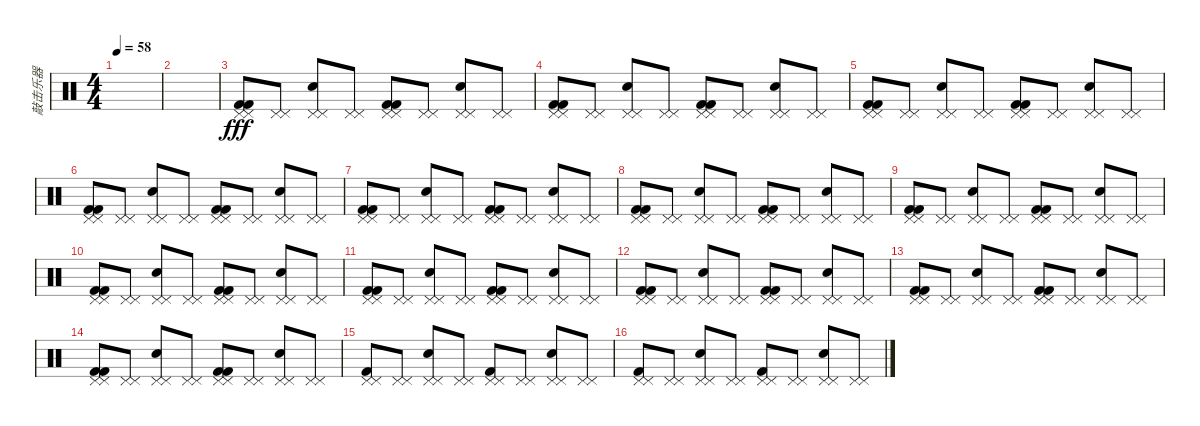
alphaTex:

\track ("敲击乐器" "敲击乐器") {instrument percussion}
\staff {score}
\articulation defaults
\ts (4 4)
\tempo 58
\clef neutral
\ks c
|
|
("Pedal Hi-Hat (hit)" "Pedal Hi-Hat (hit)" "Kick (hit) 2" "Kick (hit) 2").8{dy fff} ("Pedal Hi-Hat (hit)" "Pedal Hi-Hat (hit)").8 ("Pedal Hi-Hat (hit)" "Pedal Hi-Hat (hit)" "Snare (hit) 2").8 ("Pedal Hi-Hat (hit)" "Pedal Hi-Hat (hit)").8 ("Pedal Hi-Hat (hit)" "Pedal Hi-Hat (hit)" "Kick (hit) 2" "Kick (hit) 2").8 ("Pedal Hi-Hat (hit)" "Pedal Hi-Hat (hit)").8 ("Pedal Hi-Hat (hit)" "Pedal Hi-Hat (hit)" "Snare (hit) 2").8 ("Pedal Hi-Hat (hit)" "Pedal Hi-Hat (hit)").8 |
("Pedal Hi-Hat (hit)" "Pedal Hi-Hat (hit)" "Kick (hit) 2" "Kick (hit) 2").8 ("Pedal Hi-Hat (hit)" "Pedal Hi-Hat (hit)").8 ("Pedal Hi-Hat (hit)" "Pedal Hi-Hat (hit)" "Snare (hit) 2").8 ("Pedal Hi-Hat (hit)" "Pedal Hi-Hat (hit)").8 ("Pedal Hi-Hat (hit)" "Pedal Hi-Hat (hit)" "Kick (hit) 2" "Kick (hit) 2").8 ("Pedal Hi-Hat (hit)" "Pedal Hi-Hat (hit)").8 ("Pedal Hi-Hat (hit)" "Pedal Hi-Hat (hit)" "Snare (hit) 2").8 ("Pedal Hi-Hat (hit)" "Pedal Hi-Hat (hit)").8 |
("Pedal Hi-Hat (hit)" "Pedal Hi-Hat (hit)" "Kick (hit) 2" "Kick (hit) 2").8 ("Pedal Hi-Hat (hit)" "Pedal Hi-Hat (hit)").8 ("Pedal Hi-Hat (hit)" "Pedal Hi-Hat (hit)" "Snare (hit) 2").8 ("Pedal Hi-Hat (hit)" "Pedal Hi-Hat (hit)").8 ("Pedal Hi-Hat (hit)" "Pedal Hi-Hat (hit)" "Kick (hit) 2" "Kick (hit) 2").8 ("Pedal Hi-Hat (hit)" "Pedal Hi-Hat (hit)").8 ("Pedal Hi-Hat (hit)" "Pedal Hi-Hat (hit)" "Snare (hit) 2").8 ("Pedal Hi-Hat (hit)" "Pedal Hi-Hat (hit)").8 |
("Pedal Hi-Hat (hit)" "Pedal Hi-Hat (hit)" "Kick (hit) 2" "Kick (hit) 2").8 ("Pedal Hi-Hat (hit)" "Pedal Hi-Hat (hit)").8 ("Pedal Hi-Hat (hit)" "Pedal Hi-Hat (hit)" "Snare (hit) 2").8 ("Pedal Hi-Hat (hit)" "Pedal Hi-Hat (hit)").8 ("Pedal Hi-Hat (hit)" "Pedal Hi-Hat (hit)" "Kick (hit) 2" "Kick (hit) 2").8 ("Pedal Hi-Hat (hit)" "Pedal Hi-Hat (hit)").8 ("Pedal Hi-Hat (hit)" "Pedal Hi-Hat (hit)" "Snare (hit) 2").8 ("Pedal Hi-Hat (hit)" "Pedal Hi-Hat (hit)").8 |
("Pedal Hi-Hat (hit)" "Pedal Hi-Hat (hit)" "Kick (hit) 2" "Kick (hit) 2").8 ("Pedal Hi-Hat (hit)" "Pedal Hi-Hat (hit)").8 ("Pedal Hi-Hat (hit)" "Pedal Hi-Hat (hit)" "Snare (hit) 2").8 ("Pedal Hi-Hat (hit)" "Pedal Hi-Hat (hit)").8 ("Pedal Hi-Hat (hit)" "Pedal Hi-Hat (hit)" "Kick (hit) 2" "Kick (hit) 2").8 ("Pedal Hi-Hat (hit)" "Pedal Hi-Hat (hit)").8 ("Pedal Hi-Hat (hit)" "Pedal Hi-Hat (hit)" "Snare (hit) 2").8 ("Pedal Hi-Hat (hit)" "Pedal Hi-Hat (hit)").8 |
("Pedal Hi-Hat (hit)" "Pedal Hi-Hat (hit)" "Kick (hit) 2" "Kick (hit) 2").8 ("Pedal Hi-Hat (hit)" "Pedal Hi-Hat (hit)").8 ("Pedal Hi-Hat (hit)" "Pedal Hi-Hat (hit)" "Snare (hit) 2").8 ("Pedal Hi-Hat (hit)" "Pedal Hi-Hat (hit)").8 ("Pedal Hi-Hat (hit)" "Pedal Hi-Hat (hit)" "Kick (hit) 2" "Kick (hit) 2").8 ("Pedal Hi-Hat (hit)" "Pedal Hi-Hat (hit)").8 ("Pedal Hi-Hat (hit)" "Pedal Hi-Hat (hit)" "Snare (hit) 2").8 ("Pedal Hi-Hat (hit)" "Pedal Hi-Hat (hit)").8 |
("Pedal Hi-Hat (hit)" "Pedal Hi-Hat (hit)" "Kick (hit) 2" "Kick (hit) 2").8 ("Pedal Hi-Hat (hit)" "Pedal Hi-Hat (hit)").8 ("Pedal Hi-Hat (hit)" "Pedal Hi-Hat (hit)" "Snare (hit) 2").8 ("Pedal Hi-Hat (hit)" "Pedal Hi-Hat (hit)").8 ("Pedal Hi-Hat (hit)" "Pedal Hi-Hat (hit)" "Kick (hit) 2" "Kick (hit) 2").8 ("Pedal Hi-Hat (hit)" "Pedal Hi-Hat (hit)").8 ("Pedal Hi-Hat (hit)" "Pedal Hi-Hat (hit)" "Snare (hit) 2").8 ("Pedal Hi-Hat (hit)" "Pedal Hi-Hat (hit)").8 |
("Pedal Hi-Hat (hit)" "Pedal Hi-Hat (hit)" "Kick (hit) 2" "Kick (hit) 2").8 ("Pedal Hi-Hat (hit)" "Pedal Hi-Hat (hit)").8 ("Pedal Hi-Hat (hit)" "Pedal Hi-Hat (hit)" "Snare (hit) 2").8 ("Pedal Hi-Hat (hit)" "Pedal Hi-Hat (hit)").8 ("Pedal Hi-Hat (hit)" "Pedal Hi-Hat (hit)" "Kick (hit) 2" "Kick (hit) 2").8 ("Pedal Hi-Hat (hit)" "Pedal Hi-Hat (hit)").8 ("Pedal Hi-Hat (hit)" "Pedal Hi-Hat (hit)" "Snare (hit) 2").8 ("Pedal Hi-Hat (hit)" "Pedal Hi-Hat (hit)").8 |
("Pedal Hi-Hat (hit)" "Pedal Hi-Hat (hit)" "Kick (hit) 2" "Kick (hit) 2").8 ("Pedal Hi-Hat (hit)" "Pedal Hi-Hat (hit)").8 ("Pedal Hi-Hat (hit)" "Pedal Hi-Hat (hit)" "Snare (hit) 2").8 ("Pedal Hi-Hat (hit)" "Pedal Hi-Hat (hit)").8 ("Pedal Hi-Hat (hit)" "Pedal Hi-Hat (hit)" "Kick (hit) 2" "Kick (hit) 2").8 ("Pedal Hi-Hat (hit)" "Pedal Hi-Hat (hit)").8 ("Pedal Hi-Hat (hit)" "Pedal Hi-Hat (hit)" "Snare (hit) 2").8 ("Pedal Hi-Hat (hit)" "Pedal Hi-Hat (hit)").8 |
("Pedal Hi-Hat (hit)" "Pedal Hi-Hat (hit)" "Kick (hit) 2" "Kick (hit) 2").8 ("Pedal Hi-Hat (hit)" "Pedal Hi-Hat (hit)").8 ("Pedal Hi-Hat (hit)" "Pedal Hi-Hat (hit)" "Snare (hit) 2").8 ("Pedal Hi-Hat (hit)" "Pedal Hi-Hat (hit)").8 ("Pedal Hi-Hat (hit)" "Pedal Hi-Hat (hit)" "Kick (hit) 2" "Kick (hit) 2").8 ("Pedal Hi-Hat (hit)" "Pedal Hi-Hat (hit)").8 ("Pedal Hi-Hat (hit)" "Pedal Hi-Hat (hit)" "Snare (hit) 2").8 ("Pedal Hi-Hat (hit)" "Pedal Hi-Hat (hit)").8 |
("Pedal Hi-Hat (hit)" "Pedal Hi-Hat (hit)" "Kick (hit) 2" "Kick (hit) 2").8 ("Pedal Hi-Hat (hit)" "Pedal Hi-Hat (hit)").8 ("Pedal Hi-Hat (hit)" "Pedal Hi-Hat (hit)" "Snare (hit) 2").8 ("Pedal Hi-Hat (hit)" "Pedal Hi-Hat (hit)").8 ("Pedal Hi-Hat (hit)" "Pedal Hi-Hat (hit)" "Kick (hit) 2" "Kick (hit) 2").8 ("Pedal Hi-Hat (hit)" "Pedal Hi-Hat (hit)").8 ("Pedal Hi-Hat (hit)" "Pedal Hi-Hat (hit)" "Snare (hit) 2").8 ("Pedal Hi-Hat (hit)" "Pedal Hi-Hat (hit)").8 |
("Pedal Hi-Hat (hit)" "Pedal Hi-Hat (hit)" "Kick (hit) 2" "Kick (hit) 2").8 ("Pedal Hi-Hat (hit)" "Pedal Hi-Hat (hit)").8 ("Pedal Hi-Hat (hit)" "Pedal Hi-Hat (hit)" "Snare (hit) 2").8 ("Pedal Hi-Hat (hit)" "Pedal Hi-Hat (hit)").8 ("Pedal Hi-Hat (hit)" "Pedal Hi-Hat (hit)" "Kick (hit) 2" "Kick (hit) 2").8 ("Pedal Hi-Hat (hit)" "Pedal Hi-Hat (hit)").8 ("Pedal Hi-Hat (hit)" "Pedal Hi-Hat (hit)" "Snare (hit) 2").8 ("Pedal Hi-Hat (hit)" "Pedal Hi-Hat (hit)").8 |
("Pedal Hi-Hat (hit)" "Pedal Hi-Hat (hit)" "Kick (hit) 2").8 ("Pedal Hi-Hat (hit)" "Pedal Hi-Hat (hit)").8 ("Pedal Hi-Hat (hit)" "Pedal Hi-Hat (hit)" "Snare (hit) 2").8 ("Pedal Hi-Hat (hit)" "Pedal Hi-Hat (hit)").8 ("Pedal Hi-Hat (hit)" "Pedal Hi-Hat (hit)" "Kick (hit) 2").8 ("Pedal Hi-Hat (hit)" "Pedal Hi-Hat (hit)").8 ("Pedal Hi-Hat (hit)" "Pedal Hi-Hat (hit)" "Snare (hit) 2").8 ("Pedal Hi-Hat (hit)" "Pedal Hi-Hat (hit)").8 |
("Pedal Hi-Hat (hit)" "Pedal Hi-Hat (hit)" "Kick (hit) 2").8 ("Pedal Hi-Hat (hit)" "Pedal Hi-Hat (hit)").8 ("Pedal Hi-Hat (hit)" "Pedal Hi-Hat (hit)" "Snare (hit) 2").8 ("Pedal Hi-Hat (hit)" "Pedal Hi-Hat (hit)").8 ("Pedal Hi-Hat (hit)" "Pedal Hi-Hat (hit)" "Kick (hit) 2").8 ("Pedal Hi-Hat (hit)" "Pedal Hi-Hat (hit)").8 ("Pedal Hi-Hat (hit)" "Pedal Hi-Hat (hit)" "Snare (hit) 2").8 ("Pedal Hi-Hat (hit)" "Pedal Hi-Hat (hit)").8
